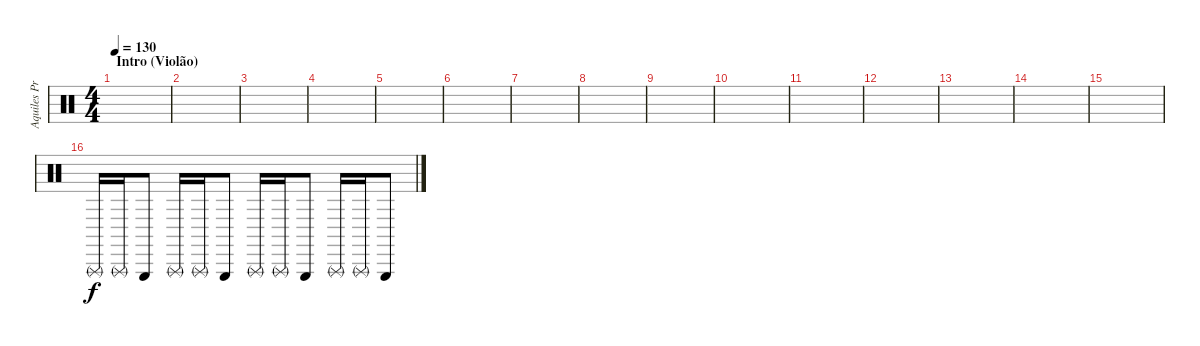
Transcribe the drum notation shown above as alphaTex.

\track ("Aquiles Priester" "Aquiles Pr") {instrument percussion}
\staff {score}
\articulation defaults
\ts (4 4)
\section ("" "Intro (Violão)")
\tempo 130
\clef neutral
\ks c
|
|
|
|
|
|
|
|
|
|
|
|
|
|
|
"Triangle (rnute)".16 "Triangle (rnute)".16 "Triangle (hit)".8 "Triangle (rnute)".16 "Triangle (rnute)".16 "Triangle (hit)".8 "Triangle (rnute)".16 "Triangle (rnute)".16 "Triangle (hit)".8 "Triangle (rnute)".16 "Triangle (rnute)".16 "Triangle (hit)".8
